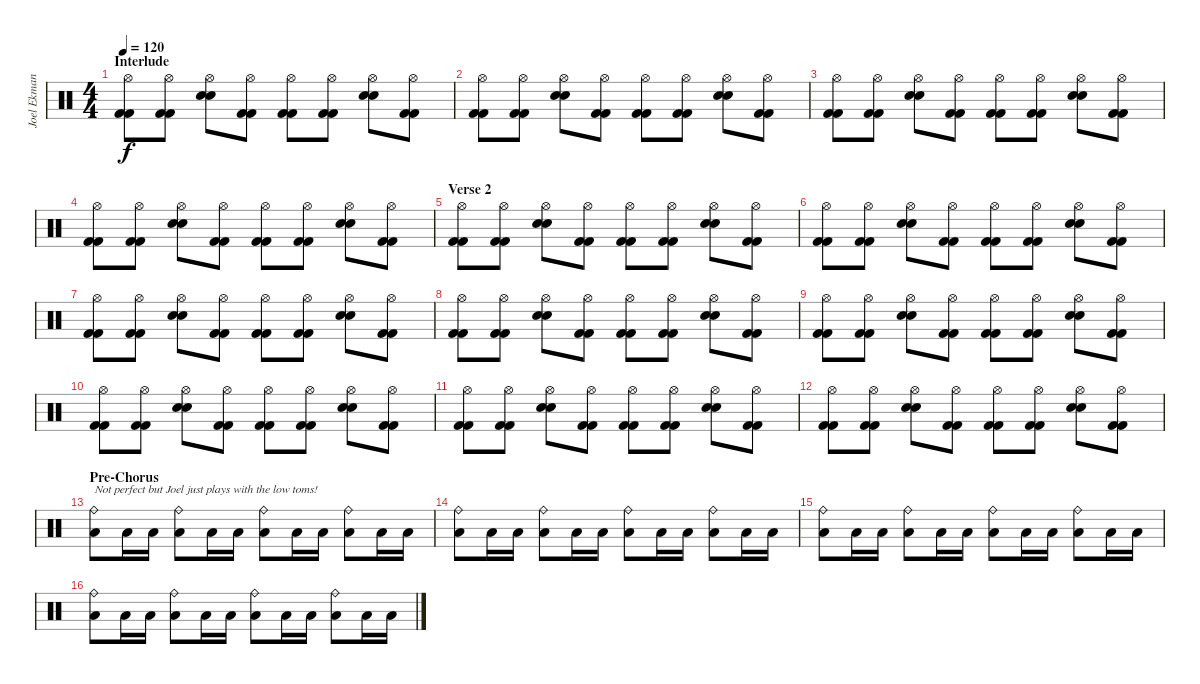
\track ("Joel Ekman" "Joel Ekman") {instrument percussion}
\staff {score}
\articulation defaults
\ts (4 4)
\section ("" "Interlude")
\tempo 120
\clef neutral
\ks c
("Hi-Hat (open)" "Kick (hit) 2" "Kick (hit) 2").8{dy f} ("Hi-Hat (open)" "Kick (hit) 2" "Kick (hit) 2").8 ("Hi-Hat (open)" "Electric Snare (hit)" "Electric Snare (hit)").8 ("Hi-Hat (open)" "Kick (hit) 2" "Kick (hit) 2").8 ("Hi-Hat (open)" "Kick (hit) 2" "Kick (hit) 2").8 ("Hi-Hat (open)" "Kick (hit) 2" "Kick (hit) 2").8 ("Hi-Hat (open)" "Electric Snare (hit)" "Electric Snare (hit)").8 ("Hi-Hat (open)" "Kick (hit) 2" "Kick (hit) 2").8 |
("Hi-Hat (open)" "Kick (hit) 2" "Kick (hit) 2").8 ("Hi-Hat (open)" "Kick (hit) 2" "Kick (hit) 2").8 ("Hi-Hat (open)" "Electric Snare (hit)" "Electric Snare (hit)").8 ("Hi-Hat (open)" "Kick (hit) 2" "Kick (hit) 2").8 ("Hi-Hat (open)" "Kick (hit) 2" "Kick (hit) 2").8 ("Hi-Hat (open)" "Kick (hit) 2" "Kick (hit) 2").8 ("Hi-Hat (open)" "Electric Snare (hit)" "Electric Snare (hit)").8 ("Hi-Hat (open)" "Kick (hit) 2" "Kick (hit) 2").8 |
("Hi-Hat (open)" "Kick (hit) 2" "Kick (hit) 2").8 ("Hi-Hat (open)" "Kick (hit) 2" "Kick (hit) 2").8 ("Hi-Hat (open)" "Electric Snare (hit)" "Electric Snare (hit)").8 ("Hi-Hat (open)" "Kick (hit) 2" "Kick (hit) 2").8 ("Hi-Hat (open)" "Kick (hit) 2" "Kick (hit) 2").8 ("Hi-Hat (open)" "Kick (hit) 2" "Kick (hit) 2").8 ("Hi-Hat (open)" "Electric Snare (hit)" "Electric Snare (hit)").8 ("Hi-Hat (open)" "Kick (hit) 2" "Kick (hit) 2").8 |
("Hi-Hat (open)" "Kick (hit) 2" "Kick (hit) 2").8 ("Hi-Hat (open)" "Kick (hit) 2" "Kick (hit) 2").8 ("Hi-Hat (open)" "Electric Snare (hit)" "Electric Snare (hit)").8 ("Hi-Hat (open)" "Kick (hit) 2" "Kick (hit) 2").8 ("Hi-Hat (open)" "Kick (hit) 2" "Kick (hit) 2").8 ("Hi-Hat (open)" "Kick (hit) 2" "Kick (hit) 2").8 ("Hi-Hat (open)" "Electric Snare (hit)" "Electric Snare (hit)").8 ("Hi-Hat (open)" "Kick (hit) 2" "Kick (hit) 2").8 |
\section ("" "Verse 2")
("Hi-Hat (open)" "Kick (hit) 2" "Kick (hit) 2").8 ("Hi-Hat (open)" "Kick (hit) 2" "Kick (hit) 2").8 ("Hi-Hat (open)" "Electric Snare (hit)" "Electric Snare (hit)").8 ("Hi-Hat (open)" "Kick (hit) 2" "Kick (hit) 2").8 ("Hi-Hat (open)" "Kick (hit) 2" "Kick (hit) 2").8 ("Hi-Hat (open)" "Kick (hit) 2" "Kick (hit) 2").8 ("Hi-Hat (open)" "Electric Snare (hit)" "Electric Snare (hit)").8 ("Hi-Hat (open)" "Kick (hit) 2" "Kick (hit) 2").8 |
("Hi-Hat (open)" "Kick (hit) 2" "Kick (hit) 2").8 ("Hi-Hat (open)" "Kick (hit) 2" "Kick (hit) 2").8 ("Hi-Hat (open)" "Electric Snare (hit)" "Electric Snare (hit)").8 ("Hi-Hat (open)" "Kick (hit) 2" "Kick (hit) 2").8 ("Hi-Hat (open)" "Kick (hit) 2" "Kick (hit) 2").8 ("Hi-Hat (open)" "Kick (hit) 2" "Kick (hit) 2").8 ("Hi-Hat (open)" "Electric Snare (hit)" "Electric Snare (hit)").8 ("Hi-Hat (open)" "Kick (hit) 2" "Kick (hit) 2").8 |
("Hi-Hat (open)" "Kick (hit) 2" "Kick (hit) 2").8 ("Hi-Hat (open)" "Kick (hit) 2" "Kick (hit) 2").8 ("Hi-Hat (open)" "Electric Snare (hit)" "Electric Snare (hit)").8 ("Hi-Hat (open)" "Kick (hit) 2" "Kick (hit) 2").8 ("Hi-Hat (open)" "Kick (hit) 2" "Kick (hit) 2").8 ("Hi-Hat (open)" "Kick (hit) 2" "Kick (hit) 2").8 ("Hi-Hat (open)" "Electric Snare (hit)" "Electric Snare (hit)").8 ("Hi-Hat (open)" "Kick (hit) 2" "Kick (hit) 2").8 |
("Hi-Hat (open)" "Kick (hit) 2" "Kick (hit) 2").8 ("Hi-Hat (open)" "Kick (hit) 2" "Kick (hit) 2").8 ("Hi-Hat (open)" "Electric Snare (hit)" "Electric Snare (hit)").8 ("Hi-Hat (open)" "Kick (hit) 2" "Kick (hit) 2").8 ("Hi-Hat (open)" "Kick (hit) 2" "Kick (hit) 2").8 ("Hi-Hat (open)" "Kick (hit) 2" "Kick (hit) 2").8 ("Hi-Hat (open)" "Electric Snare (hit)" "Electric Snare (hit)").8 ("Hi-Hat (open)" "Kick (hit) 2" "Kick (hit) 2").8 |
("Hi-Hat (open)" "Kick (hit) 2" "Kick (hit) 2").8 ("Hi-Hat (open)" "Kick (hit) 2" "Kick (hit) 2").8 ("Hi-Hat (open)" "Electric Snare (hit)" "Electric Snare (hit)").8 ("Hi-Hat (open)" "Kick (hit) 2" "Kick (hit) 2").8 ("Hi-Hat (open)" "Kick (hit) 2" "Kick (hit) 2").8 ("Hi-Hat (open)" "Kick (hit) 2" "Kick (hit) 2").8 ("Hi-Hat (open)" "Electric Snare (hit)" "Electric Snare (hit)").8 ("Hi-Hat (open)" "Kick (hit) 2" "Kick (hit) 2").8 |
("Hi-Hat (open)" "Kick (hit) 2" "Kick (hit) 2").8 ("Hi-Hat (open)" "Kick (hit) 2" "Kick (hit) 2").8 ("Hi-Hat (open)" "Electric Snare (hit)" "Electric Snare (hit)").8 ("Hi-Hat (open)" "Kick (hit) 2" "Kick (hit) 2").8 ("Hi-Hat (open)" "Kick (hit) 2" "Kick (hit) 2").8 ("Hi-Hat (open)" "Kick (hit) 2" "Kick (hit) 2").8 ("Hi-Hat (open)" "Electric Snare (hit)" "Electric Snare (hit)").8 ("Hi-Hat (open)" "Kick (hit) 2" "Kick (hit) 2").8 |
("Hi-Hat (open)" "Kick (hit) 2" "Kick (hit) 2").8 ("Hi-Hat (open)" "Kick (hit) 2" "Kick (hit) 2").8 ("Hi-Hat (open)" "Electric Snare (hit)" "Electric Snare (hit)").8 ("Hi-Hat (open)" "Kick (hit) 2" "Kick (hit) 2").8 ("Hi-Hat (open)" "Kick (hit) 2" "Kick (hit) 2").8 ("Hi-Hat (open)" "Kick (hit) 2" "Kick (hit) 2").8 ("Hi-Hat (open)" "Electric Snare (hit)" "Electric Snare (hit)").8 ("Hi-Hat (open)" "Kick (hit) 2" "Kick (hit) 2").8 |
("Hi-Hat (open)" "Kick (hit) 2" "Kick (hit) 2").8 ("Hi-Hat (open)" "Kick (hit) 2" "Kick (hit) 2").8 ("Hi-Hat (open)" "Electric Snare (hit)" "Electric Snare (hit)").8 ("Hi-Hat (open)" "Kick (hit) 2" "Kick (hit) 2").8 ("Hi-Hat (open)" "Kick (hit) 2" "Kick (hit) 2").8 ("Hi-Hat (open)" "Kick (hit) 2" "Kick (hit) 2").8 ("Hi-Hat (open)" "Electric Snare (hit)" "Electric Snare (hit)").8 ("Hi-Hat (open)" "Kick (hit) 2" "Kick (hit) 2").8 |
\section ("" "Pre-Chorus")
("Low Floor Tom (hit)" "Ride (bell)").8{txt "Not perfect but Joel just plays with the low toms!"} "Low Tom (hit)".16 "Low Tom (hit)".16 ("Low Floor Tom (hit)" "Ride (bell)").8 "Low Tom (hit)".16 "Low Tom (hit)".16 ("Low Floor Tom (hit)" "Ride (bell)").8 "Low Tom (hit)".16 "Low Tom (hit)".16 ("Low Floor Tom (hit)" "Ride (bell)").8 "Low Tom (hit)".16 "Low Tom (hit)".16 |
("Low Floor Tom (hit)" "Ride (bell)").8 "Low Tom (hit)".16 "Low Tom (hit)".16 ("Low Floor Tom (hit)" "Ride (bell)").8 "Low Tom (hit)".16 "Low Tom (hit)".16 ("Low Floor Tom (hit)" "Ride (bell)").8 "Low Tom (hit)".16 "Low Tom (hit)".16 ("Low Floor Tom (hit)" "Ride (bell)").8 "Low Tom (hit)".16 "Low Tom (hit)".16 |
("Low Floor Tom (hit)" "Ride (bell)").8 "Low Tom (hit)".16 "Low Tom (hit)".16 ("Low Floor Tom (hit)" "Ride (bell)").8 "Low Tom (hit)".16 "Low Tom (hit)".16 ("Low Floor Tom (hit)" "Ride (bell)").8 "Low Tom (hit)".16 "Low Tom (hit)".16 ("Low Floor Tom (hit)" "Ride (bell)").8 "Low Tom (hit)".16 "Low Tom (hit)".16 |
("Low Floor Tom (hit)" "Ride (bell)").8 "Low Tom (hit)".16 "Low Tom (hit)".16 ("Low Floor Tom (hit)" "Ride (bell)").8 "Low Tom (hit)".16 "Low Tom (hit)".16 ("Low Floor Tom (hit)" "Ride (bell)").8 "Low Tom (hit)".16 "Low Tom (hit)".16 ("Low Floor Tom (hit)" "Ride (bell)").8 "Low Tom (hit)".16 "Low Tom (hit)".16
